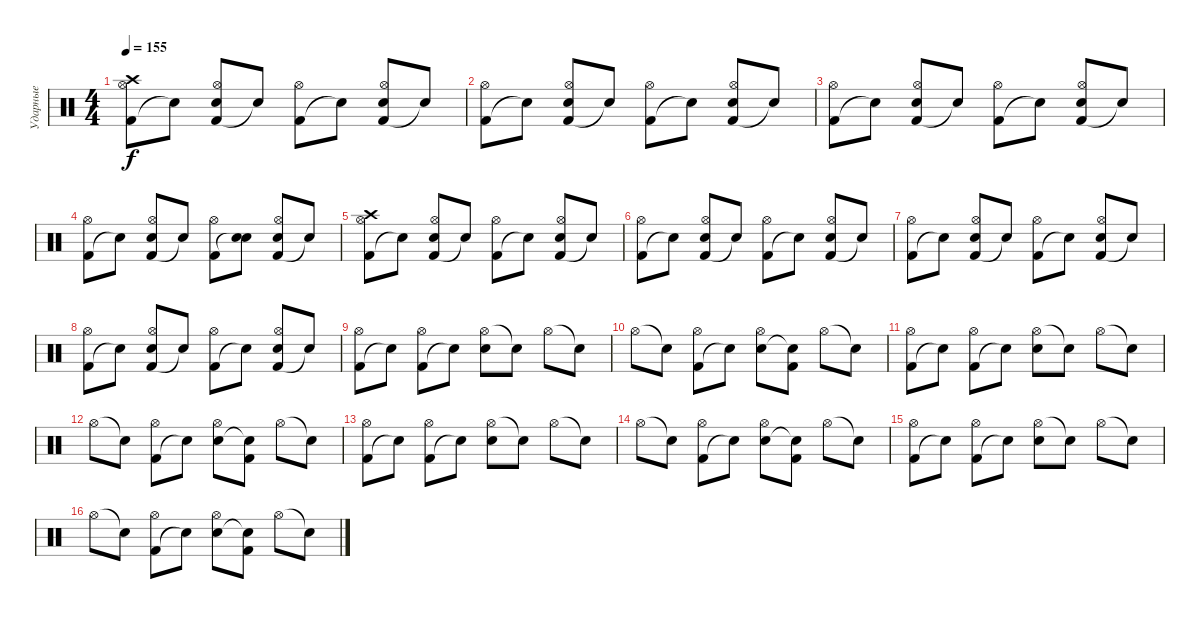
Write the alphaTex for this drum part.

\track ("Ударные" "Ударные") {instrument percussion}
\staff {score}
\articulation defaults
\ts (4 4)
\tempo 155
\clef neutral
\ks c
("Kick (hit) 2" "Hi-Hat (open)" "Crash high (hit)").8{dy f} "Snare (hit)"{t}.8 ("Kick (hit) 2" "Hi-Hat (open)" "Snare (hit) 2").8 "Snare (hit)"{t}.8 ("Kick (hit) 2" "Hi-Hat (open)").8 "Snare (hit)"{t}.8 ("Kick (hit) 2" "Hi-Hat (open)" "Snare (hit) 2").8 "Snare (hit)"{t}.8 |
("Kick (hit) 2" "Hi-Hat (open)").8 "Snare (hit)"{t}.8 ("Kick (hit) 2" "Hi-Hat (open)" "Snare (hit) 2").8 "Snare (hit)"{t}.8 ("Kick (hit) 2" "Hi-Hat (open)").8 "Snare (hit)"{t}.8 ("Kick (hit) 2" "Hi-Hat (open)" "Snare (hit) 2").8 "Snare (hit)"{t}.8 |
("Kick (hit) 2" "Hi-Hat (open)").8 "Snare (hit)"{t}.8 ("Kick (hit) 2" "Hi-Hat (open)" "Snare (hit) 2").8 "Snare (hit)"{t}.8 ("Kick (hit) 2" "Hi-Hat (open)").8 "Snare (hit)"{t}.8 ("Kick (hit) 2" "Hi-Hat (open)" "Snare (hit) 2").8 "Snare (hit)"{t}.8 |
("Kick (hit) 2" "Hi-Hat (open)").8 "Snare (hit)"{t}.8 ("Kick (hit) 2" "Hi-Hat (open)" "Snare (hit) 2").8 "Snare (hit)"{t}.8 ("Kick (hit) 2" "Hi-Hat (open)").8 ("Snare (hit)"{t} "Snare (hit) 2").8 ("Kick (hit) 2" "Hi-Hat (open)" "Snare (hit) 2").8 "Snare (hit)"{t}.8 |
("Kick (hit) 2" "Hi-Hat (open)" "Crash high (hit)").8 "Snare (hit)"{t}.8 ("Kick (hit) 2" "Hi-Hat (open)" "Snare (hit) 2").8 "Snare (hit)"{t}.8 ("Kick (hit) 2" "Hi-Hat (open)").8 "Snare (hit)"{t}.8 ("Kick (hit) 2" "Hi-Hat (open)" "Snare (hit) 2").8 "Snare (hit)"{t}.8 |
("Kick (hit) 2" "Hi-Hat (open)").8 "Snare (hit)"{t}.8 ("Kick (hit) 2" "Hi-Hat (open)" "Snare (hit) 2").8 "Snare (hit)"{t}.8 ("Kick (hit) 2" "Hi-Hat (open)").8 "Snare (hit)"{t}.8 ("Kick (hit) 2" "Hi-Hat (open)" "Snare (hit) 2").8 "Snare (hit)"{t}.8 |
("Kick (hit) 2" "Hi-Hat (open)").8 "Snare (hit)"{t}.8 ("Kick (hit) 2" "Hi-Hat (open)" "Snare (hit) 2").8 "Snare (hit)"{t}.8 ("Kick (hit) 2" "Hi-Hat (open)").8 "Snare (hit)"{t}.8 ("Kick (hit) 2" "Hi-Hat (open)" "Snare (hit) 2").8 "Snare (hit)"{t}.8 |
("Kick (hit) 2" "Hi-Hat (open)").8 "Snare (hit)"{t}.8 ("Kick (hit) 2" "Hi-Hat (open)" "Snare (hit) 2").8 "Snare (hit)"{t}.8 ("Kick (hit) 2" "Hi-Hat (open)").8 "Snare (hit)"{t}.8 ("Kick (hit) 2" "Hi-Hat (open)" "Snare (hit) 2").8 "Snare (hit)"{t}.8 |
("Kick (hit) 2" "Hi-Hat (open)").8 "Snare (hit)"{t}.8 ("Kick (hit) 2" "Hi-Hat (open)").8 "Snare (hit)"{t}.8 ("Hi-Hat (open)" "Snare (hit) 2").8 "Snare (hit)"{t}.8 "Hi-Hat (open)".8 "Snare (hit)"{t}.8 |
"Hi-Hat (open)".8 "Snare (hit)"{t}.8 ("Kick (hit) 2" "Hi-Hat (open)").8 "Snare (hit)"{t}.8 ("Hi-Hat (open)" "Snare (hit) 2").8 ("Kick (hit) 2" "Snare (hit)"{t}).8 "Hi-Hat (open)".8 "Snare (hit)"{t}.8 |
("Kick (hit) 2" "Hi-Hat (open)").8 "Snare (hit)"{t}.8 ("Kick (hit) 2" "Hi-Hat (open)").8 "Snare (hit)"{t}.8 ("Hi-Hat (open)" "Snare (hit) 2").8 "Snare (hit)"{t}.8 "Hi-Hat (open)".8 "Snare (hit)"{t}.8 |
"Hi-Hat (open)".8 "Snare (hit)"{t}.8 ("Kick (hit) 2" "Hi-Hat (open)").8 "Snare (hit)"{t}.8 ("Hi-Hat (open)" "Snare (hit) 2").8 ("Kick (hit) 2" "Snare (hit)"{t}).8 "Hi-Hat (open)".8 "Snare (hit)"{t}.8 |
("Kick (hit) 2" "Hi-Hat (open)").8 "Snare (hit)"{t}.8 ("Kick (hit) 2" "Hi-Hat (open)").8 "Snare (hit)"{t}.8 ("Hi-Hat (open)" "Snare (hit) 2").8 "Snare (hit)"{t}.8 "Hi-Hat (open)".8 "Snare (hit)"{t}.8 |
"Hi-Hat (open)".8 "Snare (hit)"{t}.8 ("Kick (hit) 2" "Hi-Hat (open)").8 "Snare (hit)"{t}.8 ("Hi-Hat (open)" "Snare (hit) 2").8 ("Kick (hit) 2" "Snare (hit)"{t}).8 "Hi-Hat (open)".8 "Snare (hit)"{t}.8 |
("Kick (hit) 2" "Hi-Hat (open)").8 "Snare (hit)"{t}.8 ("Kick (hit) 2" "Hi-Hat (open)").8 "Snare (hit)"{t}.8 ("Hi-Hat (open)" "Snare (hit) 2").8 "Snare (hit)"{t}.8 "Hi-Hat (open)".8 "Snare (hit)"{t}.8 |
"Hi-Hat (open)".8 "Snare (hit)"{t}.8 ("Kick (hit) 2" "Hi-Hat (open)").8 "Snare (hit)"{t}.8 ("Hi-Hat (open)" "Snare (hit) 2").8 ("Kick (hit) 2" "Snare (hit)"{t}).8 "Hi-Hat (open)".8 "Snare (hit)"{t}.8
